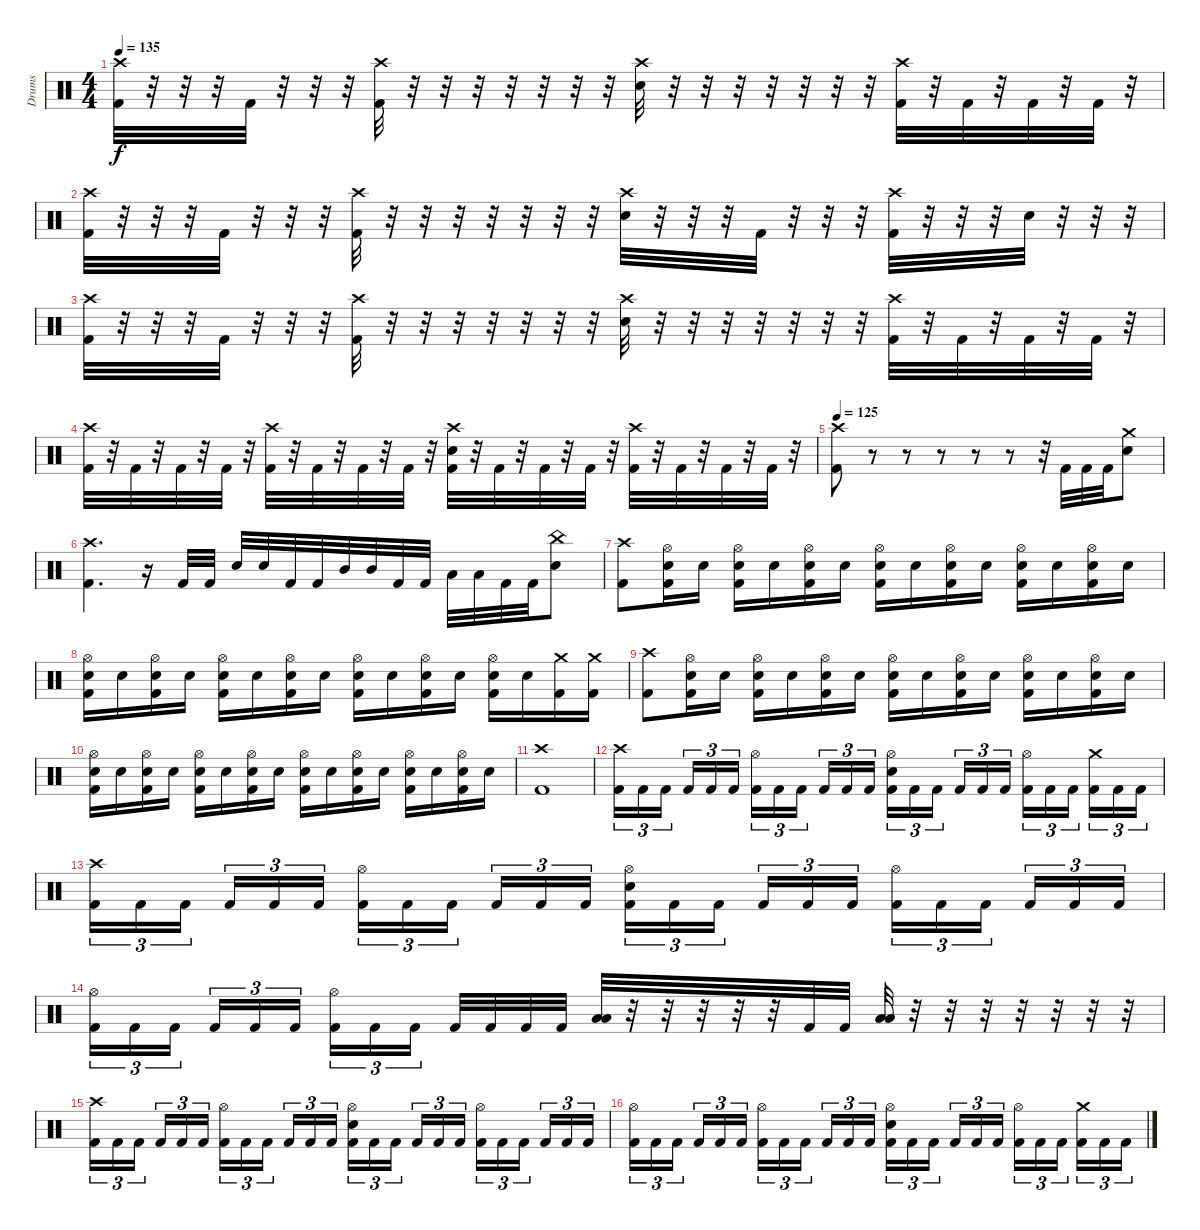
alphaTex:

\track ("Drums" "Drums") {instrument percussion}
\staff {score}
\articulation defaults
\ts (4 4)
\tempo 135
\clef neutral
\ks c
("Crash high (hit)" "Kick (hit) 2").32{dy f} r.32 r.32 r.32 "Kick (hit) 2".32 r.32 r.32 r.32 ("Crash high (hit)" "Kick (hit) 2").32 r.32 r.32 r.32 r.32 r.32 r.32 r.32 ("Crash high (hit)" "Electric Snare (hit)").32 r.32 r.32 r.32 r.32 r.32 r.32 r.32 ("Crash high (hit)" "Kick (hit) 2").32 r.32 "Kick (hit) 2".32 r.32 "Kick (hit) 2".32 r.32 "Kick (hit) 2".32 r.32 |
("Crash high (hit)" "Kick (hit) 2").32 r.32 r.32 r.32 "Kick (hit) 2".32 r.32 r.32 r.32 ("Crash high (hit)" "Kick (hit) 2").32 r.32 r.32 r.32 r.32 r.32 r.32 r.32 ("Crash high (hit)" "Electric Snare (hit)").32 r.32 r.32 r.32 "Kick (hit) 2".32 r.32 r.32 r.32 ("Crash high (hit)" "Kick (hit) 2").32 r.32 r.32 r.32 "Electric Snare (hit)".32 r.32 r.32 r.32 |
("Crash high (hit)" "Kick (hit) 2").32 r.32 r.32 r.32 "Kick (hit) 2".32 r.32 r.32 r.32 ("Crash high (hit)" "Kick (hit) 2").32 r.32 r.32 r.32 r.32 r.32 r.32 r.32 ("Crash high (hit)" "Electric Snare (hit)").32 r.32 r.32 r.32 r.32 r.32 r.32 r.32 ("Crash high (hit)" "Kick (hit) 2").32 r.32 "Kick (hit) 2".32 r.32 "Kick (hit) 2".32 r.32 "Kick (hit) 2".32 r.32 |
("Crash high (hit)" "Kick (hit) 2").32 r.32 "Kick (hit) 2".32 r.32 "Kick (hit) 2".32 r.32 "Kick (hit) 2".32 r.32 ("Crash high (hit)" "Kick (hit) 2").32 r.32 "Kick (hit) 2".32 r.32 "Kick (hit) 2".32 r.32 "Kick (hit) 2".32 r.32 ("Crash high (hit)" "Electric Snare (hit)" "Kick (hit) 2").32 r.32 "Kick (hit) 2".32 r.32 "Kick (hit) 2".32 r.32 "Kick (hit) 2".32 r.32 ("Crash high (hit)" "Kick (hit) 2").32 r.32 "Kick (hit) 2".32 r.32 "Kick (hit) 2".32 r.32 "Kick (hit) 2".32 r.32 |
\tempo 125
("Crash high (hit)" "Kick (hit) 2").8 r.8 r.8 r.8 r.8 r.8 r.32 "Kick (hit) 2".32 "Kick (hit) 2".32 "Kick (hit) 2".32 ("Crash medium (hit)" "Electric Snare (hit)").8 |
("Crash high (hit)" "Kick (hit) 2").4{d} r.16 "Kick (hit) 2".32 "Kick (hit) 2".32 "Electric Snare (hit)".32 "Electric Snare (hit)".32 "Kick (hit) 2".32 "Kick (hit) 2".32 "Mid Tom (hit)".32 "Mid Tom (hit)".32 "Kick (hit) 2".32 "Kick (hit) 2".32 "Low Tom (hit)".32 "Low Tom (hit)".32 "Kick (hit) 2".32 "Kick (hit) 2".32 ("China (hit)" "Electric Snare (hit)").8 |
("Crash high (hit)" "Kick (hit) 2").8 ("Hi-Hat (open)" "Electric Snare (hit)" "Kick (hit) 2").16 "Electric Snare (hit)".16 ("Hi-Hat (open)" "Electric Snare (hit)" "Kick (hit) 2").16 "Electric Snare (hit)".16 ("Hi-Hat (open)" "Electric Snare (hit)" "Kick (hit) 2").16 "Electric Snare (hit)".16 ("Hi-Hat (open)" "Electric Snare (hit)" "Kick (hit) 2").16 "Electric Snare (hit)".16 ("Hi-Hat (open)" "Electric Snare (hit)" "Kick (hit) 2").16 "Electric Snare (hit)".16 ("Hi-Hat (open)" "Electric Snare (hit)" "Kick (hit) 2").16 "Electric Snare (hit)".16 ("Hi-Hat (open)" "Electric Snare (hit)" "Kick (hit) 2").16 "Electric Snare (hit)".16 |
("Hi-Hat (open)" "Electric Snare (hit)" "Kick (hit) 2").16 "Electric Snare (hit)".16 ("Hi-Hat (open)" "Electric Snare (hit)" "Kick (hit) 2").16 "Electric Snare (hit)".16 ("Hi-Hat (open)" "Electric Snare (hit)" "Kick (hit) 2").16 "Electric Snare (hit)".16 ("Hi-Hat (open)" "Electric Snare (hit)" "Kick (hit) 2").16 "Electric Snare (hit)".16 ("Hi-Hat (open)" "Electric Snare (hit)" "Kick (hit) 2").16 "Electric Snare (hit)".16 ("Hi-Hat (open)" "Electric Snare (hit)" "Kick (hit) 2").16 "Electric Snare (hit)".16 ("Hi-Hat (open)" "Electric Snare (hit)" "Kick (hit) 2").16 "Electric Snare (hit)".16 ("Crash medium (hit)" "Kick (hit) 2").16 ("Crash medium (hit)" "Kick (hit) 2").16 |
("Crash high (hit)" "Kick (hit) 2").8 ("Hi-Hat (open)" "Electric Snare (hit)" "Kick (hit) 2").16 "Electric Snare (hit)".16 ("Hi-Hat (open)" "Electric Snare (hit)" "Kick (hit) 2").16 "Electric Snare (hit)".16 ("Hi-Hat (open)" "Electric Snare (hit)" "Kick (hit) 2").16 "Electric Snare (hit)".16 ("Hi-Hat (open)" "Electric Snare (hit)" "Kick (hit) 2").16 "Electric Snare (hit)".16 ("Hi-Hat (open)" "Electric Snare (hit)" "Kick (hit) 2").16 "Electric Snare (hit)".16 ("Hi-Hat (open)" "Electric Snare (hit)" "Kick (hit) 2").16 "Electric Snare (hit)".16 ("Hi-Hat (open)" "Electric Snare (hit)" "Kick (hit) 2").16 "Electric Snare (hit)".16 |
("Hi-Hat (open)" "Electric Snare (hit)" "Kick (hit) 2").16 "Electric Snare (hit)".16 ("Hi-Hat (open)" "Electric Snare (hit)" "Kick (hit) 2").16 "Electric Snare (hit)".16 ("Hi-Hat (open)" "Electric Snare (hit)" "Kick (hit) 2").16 "Electric Snare (hit)".16 ("Hi-Hat (open)" "Electric Snare (hit)" "Kick (hit) 2").16 "Electric Snare (hit)".16 ("Hi-Hat (open)" "Electric Snare (hit)" "Kick (hit) 2").16 "Electric Snare (hit)".16 ("Hi-Hat (open)" "Electric Snare (hit)" "Kick (hit) 2").16 "Electric Snare (hit)".16 ("Hi-Hat (open)" "Electric Snare (hit)" "Kick (hit) 2").16 "Electric Snare (hit)".16 ("Hi-Hat (open)" "Electric Snare (hit)" "Kick (hit) 2").16 "Electric Snare (hit)".16 |
("Crash high (hit)" "Kick (hit) 2").1 |
("Crash high (hit)" "Kick (hit) 2").16{tu (3 2)} "Kick (hit) 2".16{tu (3 2)} "Kick (hit) 2".16{tu (3 2) beam splitsecondary} "Kick (hit) 2".16{tu (3 2)} "Kick (hit) 2".16{tu (3 2)} "Kick (hit) 2".16{tu (3 2)} ("Hi-Hat (open)" "Kick (hit) 2").16{tu (3 2)} "Kick (hit) 2".16{tu (3 2)} "Kick (hit) 2".16{tu (3 2) beam splitsecondary} "Kick (hit) 2".16{tu (3 2)} "Kick (hit) 2".16{tu (3 2)} "Kick (hit) 2".16{tu (3 2)} ("Hi-Hat (open)" "Electric Snare (hit)" "Kick (hit) 2").16{tu (3 2)} "Kick (hit) 2".16{tu (3 2)} "Kick (hit) 2".16{tu (3 2) beam splitsecondary} "Kick (hit) 2".16{tu (3 2)} "Kick (hit) 2".16{tu (3 2)} "Kick (hit) 2".16{tu (3 2)} ("Hi-Hat (open)" "Kick (hit) 2").16{tu (3 2)} "Kick (hit) 2".16{tu (3 2)} "Kick (hit) 2".16{tu (3 2) beam splitsecondary} ("Crash medium (hit)" "Kick (hit) 2").16{tu (3 2)} "Kick (hit) 2".16{tu (3 2)} "Kick (hit) 2".16{tu (3 2)} |
("Crash high (hit)" "Kick (hit) 2").16{tu (3 2)} "Kick (hit) 2".16{tu (3 2)} "Kick (hit) 2".16{tu (3 2) beam splitsecondary} "Kick (hit) 2".16{tu (3 2)} "Kick (hit) 2".16{tu (3 2)} "Kick (hit) 2".16{tu (3 2)} ("Hi-Hat (open)" "Kick (hit) 2").16{tu (3 2)} "Kick (hit) 2".16{tu (3 2)} "Kick (hit) 2".16{tu (3 2) beam splitsecondary} "Kick (hit) 2".16{tu (3 2)} "Kick (hit) 2".16{tu (3 2)} "Kick (hit) 2".16{tu (3 2)} ("Hi-Hat (open)" "Electric Snare (hit)" "Kick (hit) 2").16{tu (3 2)} "Kick (hit) 2".16{tu (3 2)} "Kick (hit) 2".16{tu (3 2) beam splitsecondary} "Kick (hit) 2".16{tu (3 2)} "Kick (hit) 2".16{tu (3 2)} "Kick (hit) 2".16{tu (3 2)} ("Hi-Hat (open)" "Kick (hit) 2").16{tu (3 2)} "Kick (hit) 2".16{tu (3 2)} "Kick (hit) 2".16{tu (3 2) beam splitsecondary} "Kick (hit) 2".16{tu (3 2)} "Kick (hit) 2".16{tu (3 2)} "Kick (hit) 2".16{tu (3 2)} |
("Hi-Hat (open)" "Kick (hit) 2").16{tu (3 2)} "Kick (hit) 2".16{tu (3 2)} "Kick (hit) 2".16{tu (3 2) beam splitsecondary} "Kick (hit) 2".16{tu (3 2)} "Kick (hit) 2".16{tu (3 2)} "Kick (hit) 2".16{tu (3 2)} ("Hi-Hat (open)" "Kick (hit) 2").16{tu (3 2)} "Kick (hit) 2".16{tu (3 2)} "Kick (hit) 2".16{tu (3 2) beam splitsecondary} "Kick (hit) 2".32 "Kick (hit) 2".32 "Kick (hit) 2".32 "Kick (hit) 2".32 ("Low Tom (hit)" "Low Floor Tom (hit)").32 r.32 r.32 r.32 r.32 r.32 "Kick (hit) 2".32 "Kick (hit) 2".32 ("Low Tom (hit)" "Low Floor Tom (hit)").32 r.32 r.32 r.32 r.32 r.32 r.32 r.32 |
("Crash high (hit)" "Kick (hit) 2").16{tu (3 2)} "Kick (hit) 2".16{tu (3 2)} "Kick (hit) 2".16{tu (3 2) beam splitsecondary} "Kick (hit) 2".16{tu (3 2)} "Kick (hit) 2".16{tu (3 2)} "Kick (hit) 2".16{tu (3 2)} ("Hi-Hat (open)" "Kick (hit) 2").16{tu (3 2)} "Kick (hit) 2".16{tu (3 2)} "Kick (hit) 2".16{tu (3 2) beam splitsecondary} "Kick (hit) 2".16{tu (3 2)} "Kick (hit) 2".16{tu (3 2)} "Kick (hit) 2".16{tu (3 2)} ("Hi-Hat (open)" "Electric Snare (hit)" "Kick (hit) 2").16{tu (3 2)} "Kick (hit) 2".16{tu (3 2)} "Kick (hit) 2".16{tu (3 2) beam splitsecondary} "Kick (hit) 2".16{tu (3 2)} "Kick (hit) 2".16{tu (3 2)} "Kick (hit) 2".16{tu (3 2)} ("Hi-Hat (open)" "Kick (hit) 2").16{tu (3 2)} "Kick (hit) 2".16{tu (3 2)} "Kick (hit) 2".16{tu (3 2) beam splitsecondary} "Kick (hit) 2".16{tu (3 2)} "Kick (hit) 2".16{tu (3 2)} "Kick (hit) 2".16{tu (3 2)} |
("Hi-Hat (open)" "Kick (hit) 2").16{tu (3 2)} "Kick (hit) 2".16{tu (3 2)} "Kick (hit) 2".16{tu (3 2) beam splitsecondary} "Kick (hit) 2".16{tu (3 2)} "Kick (hit) 2".16{tu (3 2)} "Kick (hit) 2".16{tu (3 2)} ("Hi-Hat (open)" "Kick (hit) 2").16{tu (3 2)} "Kick (hit) 2".16{tu (3 2)} "Kick (hit) 2".16{tu (3 2) beam splitsecondary} "Kick (hit) 2".16{tu (3 2)} "Kick (hit) 2".16{tu (3 2)} "Kick (hit) 2".16{tu (3 2)} ("Hi-Hat (open)" "Electric Snare (hit)" "Kick (hit) 2").16{tu (3 2)} "Kick (hit) 2".16{tu (3 2)} "Kick (hit) 2".16{tu (3 2) beam splitsecondary} "Kick (hit) 2".16{tu (3 2)} "Kick (hit) 2".16{tu (3 2)} "Kick (hit) 2".16{tu (3 2)} ("Hi-Hat (open)" "Kick (hit) 2").16{tu (3 2)} "Kick (hit) 2".16{tu (3 2)} "Kick (hit) 2".16{tu (3 2) beam splitsecondary} ("Crash medium (hit)" "Kick (hit) 2").16{tu (3 2)} "Kick (hit) 2".16{tu (3 2)} "Kick (hit) 2".16{tu (3 2)}
